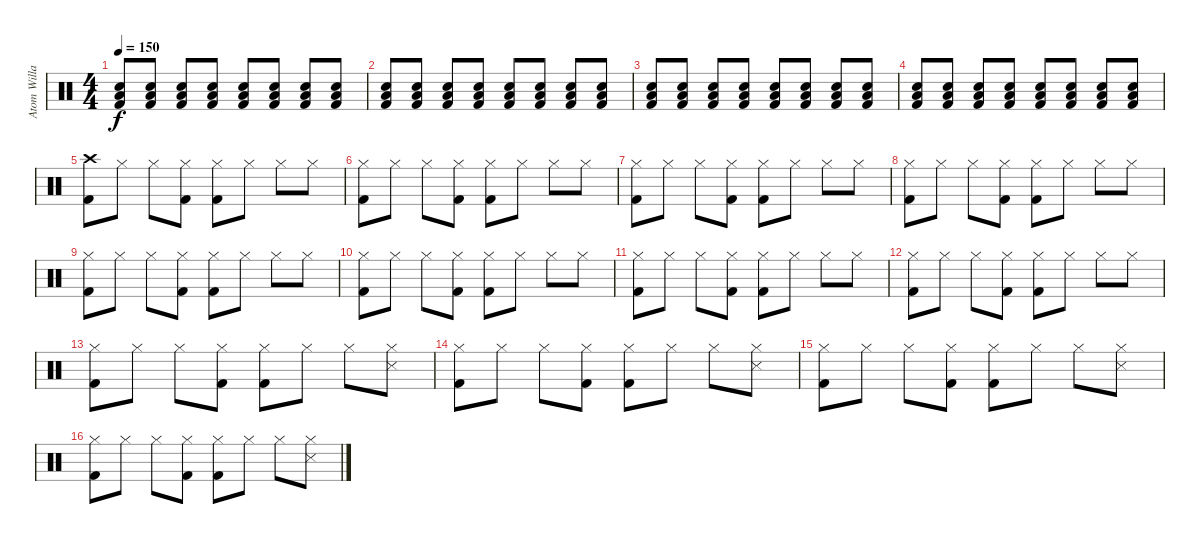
\track ("Atom Willard Drums" "Atom Willa") {instrument percussion}
\staff {score}
\articulation defaults
\ts (4 4)
\tempo 150
\clef neutral
\ks c
("Low Tom (hit)" "Electric Snare (hit)" "Kick (hit) 2").8{dy f} ("Low Tom (hit)" "Electric Snare (hit)" "Kick (hit) 2").8 ("Low Tom (hit)" "Electric Snare (hit)" "Kick (hit) 2").8 ("Low Tom (hit)" "Electric Snare (hit)" "Kick (hit) 2").8 ("Low Tom (hit)" "Electric Snare (hit)" "Kick (hit) 2").8 ("Low Tom (hit)" "Electric Snare (hit)" "Kick (hit) 2").8 ("Low Tom (hit)" "Electric Snare (hit)" "Kick (hit) 2").8 ("Low Tom (hit)" "Electric Snare (hit)" "Kick (hit) 2").8 |
("Low Tom (hit)" "Electric Snare (hit)" "Kick (hit) 2").8 ("Low Tom (hit)" "Electric Snare (hit)" "Kick (hit) 2").8 ("Low Tom (hit)" "Electric Snare (hit)" "Kick (hit) 2").8 ("Low Tom (hit)" "Electric Snare (hit)" "Kick (hit) 2").8 ("Low Tom (hit)" "Electric Snare (hit)" "Kick (hit) 2").8 ("Low Tom (hit)" "Electric Snare (hit)" "Kick (hit) 2").8 ("Low Tom (hit)" "Electric Snare (hit)" "Kick (hit) 2").8 ("Low Tom (hit)" "Electric Snare (hit)" "Kick (hit) 2").8 |
("Low Tom (hit)" "Electric Snare (hit)" "Kick (hit) 2").8 ("Low Tom (hit)" "Electric Snare (hit)" "Kick (hit) 2").8 ("Low Tom (hit)" "Electric Snare (hit)" "Kick (hit) 2").8 ("Low Tom (hit)" "Electric Snare (hit)" "Kick (hit) 2").8 ("Low Tom (hit)" "Electric Snare (hit)" "Kick (hit) 2").8 ("Low Tom (hit)" "Electric Snare (hit)" "Kick (hit) 2").8 ("Low Tom (hit)" "Electric Snare (hit)" "Kick (hit) 2").8 ("Low Tom (hit)" "Electric Snare (hit)" "Kick (hit) 2").8 |
("Low Tom (hit)" "Electric Snare (hit)" "Kick (hit) 2").8 ("Low Tom (hit)" "Electric Snare (hit)" "Kick (hit) 2").8 ("Low Tom (hit)" "Electric Snare (hit)" "Kick (hit) 2").8 ("Low Tom (hit)" "Electric Snare (hit)" "Kick (hit) 2").8 ("Low Tom (hit)" "Electric Snare (hit)" "Kick (hit) 2").8 ("Low Tom (hit)" "Electric Snare (hit)" "Kick (hit) 2").8 ("Low Tom (hit)" "Electric Snare (hit)" "Kick (hit) 2").8 ("Low Tom (hit)" "Electric Snare (hit)" "Kick (hit) 2").8 |
("Crash high (hit)" "Kick (hit) 2").8 "Hi-Hat (closed)".8 "Hi-Hat (closed)".8 ("Hi-Hat (closed)" "Kick (hit) 2").8 ("Hi-Hat (closed)" "Kick (hit) 2").8 "Hi-Hat (closed)".8 "Hi-Hat (closed)".8 "Hi-Hat (closed)".8 |
("Hi-Hat (closed)" "Kick (hit) 2").8 "Hi-Hat (closed)".8 "Hi-Hat (closed)".8 ("Hi-Hat (closed)" "Kick (hit) 2").8 ("Hi-Hat (closed)" "Kick (hit) 2").8 "Hi-Hat (closed)".8 "Hi-Hat (closed)".8 "Hi-Hat (closed)".8 |
("Hi-Hat (closed)" "Kick (hit) 2").8 "Hi-Hat (closed)".8 "Hi-Hat (closed)".8 ("Hi-Hat (closed)" "Kick (hit) 2").8 ("Hi-Hat (closed)" "Kick (hit) 2").8 "Hi-Hat (closed)".8 "Hi-Hat (closed)".8 "Hi-Hat (closed)".8 |
("Hi-Hat (closed)" "Kick (hit) 2").8 "Hi-Hat (closed)".8 "Hi-Hat (closed)".8 ("Hi-Hat (closed)" "Kick (hit) 2").8 ("Hi-Hat (closed)" "Kick (hit) 2").8 "Hi-Hat (closed)".8 "Hi-Hat (closed)".8 "Hi-Hat (closed)".8 |
("Hi-Hat (closed)" "Kick (hit) 2").8 "Hi-Hat (closed)".8 "Hi-Hat (closed)".8 ("Hi-Hat (closed)" "Kick (hit) 2").8 ("Hi-Hat (closed)" "Kick (hit) 2").8 "Hi-Hat (closed)".8 "Hi-Hat (closed)".8 "Hi-Hat (closed)".8 |
("Hi-Hat (closed)" "Kick (hit) 2").8 "Hi-Hat (closed)".8 "Hi-Hat (closed)".8 ("Hi-Hat (closed)" "Kick (hit) 2").8 ("Hi-Hat (closed)" "Kick (hit) 2").8 "Hi-Hat (closed)".8 "Hi-Hat (closed)".8 "Hi-Hat (closed)".8 |
("Hi-Hat (closed)" "Kick (hit) 2").8 "Hi-Hat (closed)".8 "Hi-Hat (closed)".8 ("Hi-Hat (closed)" "Kick (hit) 2").8 ("Hi-Hat (closed)" "Kick (hit) 2").8 "Hi-Hat (closed)".8 "Hi-Hat (closed)".8 "Hi-Hat (closed)".8 |
("Hi-Hat (closed)" "Kick (hit) 2").8 "Hi-Hat (closed)".8 "Hi-Hat (closed)".8 ("Hi-Hat (closed)" "Kick (hit) 2").8 ("Hi-Hat (closed)" "Kick (hit) 2").8 "Hi-Hat (closed)".8 "Hi-Hat (closed)".8 "Hi-Hat (closed)".8 |
("Hi-Hat (closed)" "Kick (hit) 2").8 "Hi-Hat (closed)".8 "Hi-Hat (closed)".8 ("Hi-Hat (closed)" "Kick (hit) 2").8 ("Hi-Hat (closed)" "Kick (hit) 2").8 "Hi-Hat (closed)".8 "Hi-Hat (closed)".8 ("Hi-Hat (closed)" "Snare (side stick) 3").8 |
("Hi-Hat (closed)" "Kick (hit) 2").8 "Hi-Hat (closed)".8 "Hi-Hat (closed)".8 ("Hi-Hat (closed)" "Kick (hit) 2").8 ("Hi-Hat (closed)" "Kick (hit) 2").8 "Hi-Hat (closed)".8 "Hi-Hat (closed)".8 ("Hi-Hat (closed)" "Snare (side stick) 3").8 |
("Hi-Hat (closed)" "Kick (hit) 2").8 "Hi-Hat (closed)".8 "Hi-Hat (closed)".8 ("Hi-Hat (closed)" "Kick (hit) 2").8 ("Hi-Hat (closed)" "Kick (hit) 2").8 "Hi-Hat (closed)".8 "Hi-Hat (closed)".8 ("Hi-Hat (closed)" "Snare (side stick) 3").8 |
("Hi-Hat (closed)" "Kick (hit) 2").8 "Hi-Hat (closed)".8 "Hi-Hat (closed)".8 ("Hi-Hat (closed)" "Kick (hit) 2").8 ("Hi-Hat (closed)" "Kick (hit) 2").8 "Hi-Hat (closed)".8 "Hi-Hat (closed)".8 ("Hi-Hat (closed)" "Snare (side stick) 3").8
